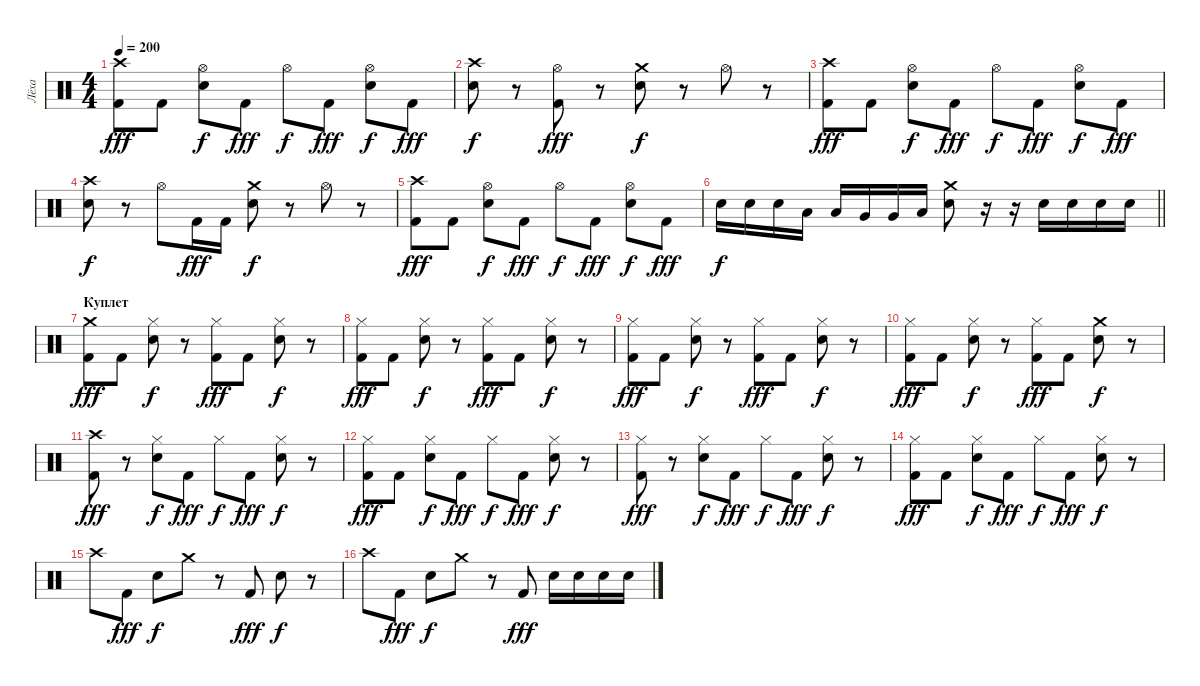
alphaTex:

\track ("Лёха" "Лёха") {instrument percussion}
\staff {score}
\articulation defaults
\ts (4 4)
\tempo 200
\clef neutral
\ks c
("Crash high (hit)" "Kick (hit) 2").8{dy fff} "Kick (hit) 2".8 ("Hi-Hat (open)" "Electric Snare (hit)").8{dy f} "Kick (hit) 2".8{dy fff} "Hi-Hat (open)".8{dy f} "Kick (hit) 2".8{dy fff} ("Hi-Hat (open)" "Electric Snare (hit)").8{dy f} "Kick (hit) 2".8{dy fff} |
("Crash high (hit)" "Electric Snare (hit)").8{dy f} r.8 ("Hi-Hat (open)" "Kick (hit) 2").8{dy fff} r.8 ("Crash medium (hit)" "Electric Snare (hit)").8{dy f} r.8 "Hi-Hat (open)".8 r.8 |
("Crash high (hit)" "Kick (hit) 2").8{dy fff} "Kick (hit) 2".8 ("Hi-Hat (open)" "Electric Snare (hit)").8{dy f} "Kick (hit) 2".8{dy fff} "Hi-Hat (open)".8{dy f} "Kick (hit) 2".8{dy fff} ("Hi-Hat (open)" "Electric Snare (hit)").8{dy f} "Kick (hit) 2".8{dy fff} |
("Crash high (hit)" "Electric Snare (hit)").8{dy f} r.8 "Hi-Hat (open)".8 "Kick (hit) 2".16{dy fff} "Kick (hit) 2".16 ("Crash medium (hit)" "Electric Snare (hit)").8{dy f} r.8 "Hi-Hat (open)".8 r.8 |
("Crash high (hit)" "Kick (hit) 2").8{dy fff} "Kick (hit) 2".8 ("Hi-Hat (open)" "Electric Snare (hit)").8{dy f} "Kick (hit) 2".8{dy fff} "Hi-Hat (open)".8{dy f} "Kick (hit) 2".8{dy fff} ("Hi-Hat (open)" "Electric Snare (hit)").8{dy f} "Kick (hit) 2".8{dy fff} |
\barLineRight lightlight "Electric Snare (hit)".16{dy f} "Electric Snare (hit)".16 "Electric Snare (hit)".16 "Low Tom (hit)".16 "Low Tom (hit)".16 "Very Low Tom (hit)".16 "Very Low Tom (hit)".16 "Low Floor Tom (hit)".16
("Crash medium (hit)" "Electric Snare (hit)").8 r.16 r.16 "Electric Snare (hit)".16 "Electric Snare (hit)".16 "Electric Snare (hit)".16 "Electric Snare (hit)".16 |
\section ("" "Куплет")
("Crash medium (hit)" "Kick (hit) 2").8{dy fff} "Kick (hit) 2".8 ("Hi-Hat (closed)" "Electric Snare (hit)").8{dy f} r.8 ("Hi-Hat (closed)" "Kick (hit) 2").8{dy fff} "Kick (hit) 2".8 ("Hi-Hat (closed)" "Electric Snare (hit)").8{dy f} r.8 |
("Hi-Hat (closed)" "Kick (hit) 2").8{dy fff} "Kick (hit) 2".8 ("Hi-Hat (closed)" "Electric Snare (hit)").8{dy f} r.8 ("Hi-Hat (closed)" "Kick (hit) 2").8{dy fff} "Kick (hit) 2".8 ("Hi-Hat (closed)" "Electric Snare (hit)").8{dy f} r.8 |
("Hi-Hat (closed)" "Kick (hit) 2").8{dy fff} "Kick (hit) 2".8 ("Hi-Hat (closed)" "Electric Snare (hit)").8{dy f} r.8 ("Hi-Hat (closed)" "Kick (hit) 2").8{dy fff} "Kick (hit) 2".8 ("Hi-Hat (closed)" "Electric Snare (hit)").8{dy f} r.8 |
("Hi-Hat (closed)" "Kick (hit) 2").8{dy fff} "Kick (hit) 2".8 ("Hi-Hat (closed)" "Electric Snare (hit)").8{dy f} r.8 ("Hi-Hat (closed)" "Kick (hit) 2").8{dy fff} "Kick (hit) 2".8 ("Crash medium (hit)" "Electric Snare (hit)").8{dy f} r.8 |
("Crash high (hit)" "Kick (hit) 2").8{dy fff} r.8 ("Hi-Hat (closed)" "Electric Snare (hit)").8{dy f} "Kick (hit) 2".8{dy fff} "Hi-Hat (closed)".8{dy f} "Kick (hit) 2".8{dy fff} ("Hi-Hat (closed)" "Electric Snare (hit)").8{dy f} r.8 |
("Hi-Hat (closed)" "Kick (hit) 2").8{dy fff} "Kick (hit) 2".8 ("Hi-Hat (closed)" "Electric Snare (hit)").8{dy f} "Kick (hit) 2".8{dy fff} "Hi-Hat (closed)".8{dy f} "Kick (hit) 2".8{dy fff} ("Hi-Hat (closed)" "Electric Snare (hit)").8{dy f} r.8 |
("Hi-Hat (closed)" "Kick (hit) 2").8{dy fff} r.8 ("Hi-Hat (closed)" "Electric Snare (hit)").8{dy f} "Kick (hit) 2".8{dy fff} "Hi-Hat (closed)".8{dy f} "Kick (hit) 2".8{dy fff} ("Hi-Hat (closed)" "Electric Snare (hit)").8{dy f} r.8 |
("Hi-Hat (closed)" "Kick (hit) 2").8{dy fff} "Kick (hit) 2".8 ("Hi-Hat (closed)" "Electric Snare (hit)").8{dy f} "Kick (hit) 2".8{dy fff} "Hi-Hat (closed)".8{dy f} "Kick (hit) 2".8{dy fff} ("Hi-Hat (closed)" "Electric Snare (hit)").8{dy f} r.8 |
"Crash high (hit)".8 "Kick (hit) 2".8{dy fff} "Electric Snare (hit)".8{dy f} "Crash medium (hit)".8 r.8 "Kick (hit) 2".8{dy fff} "Electric Snare (hit)".8{dy f} r.8 |
"Crash high (hit)".8 "Kick (hit) 2".8{dy fff} "Electric Snare (hit)".8{dy f} "Crash medium (hit)".8 r.8 "Kick (hit) 2".8{dy fff} "Electric Snare (hit)".16 "Electric Snare (hit)".16 "Electric Snare (hit)".16 "Electric Snare (hit)".16
